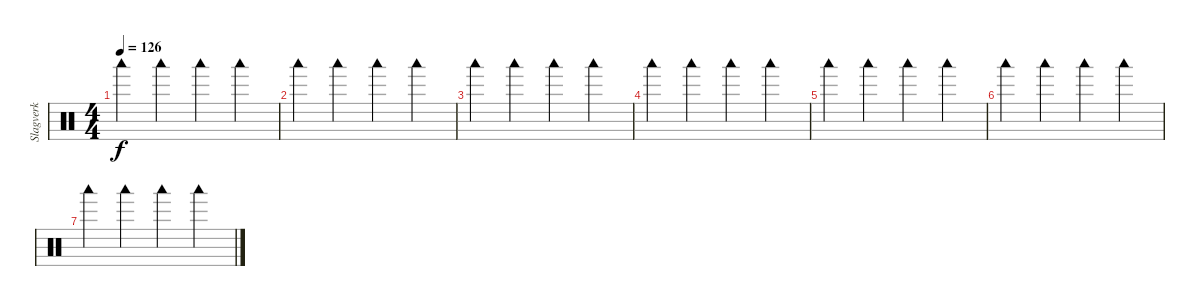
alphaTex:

\track ("Slagverk" "Slagverk") {instrument percussion}
\staff {score}
\articulation defaults
\ts (4 4)
\tempo 126
\clef neutral
\ks c "Woodblock low (hit)".4{dy f} "Woodblock low (hit)".4 "Woodblock low (hit)".4 "Woodblock low (hit)".4
|
"Woodblock low (hit)".4 "Woodblock low (hit)".4 "Woodblock low (hit)".4 "Woodblock low (hit)".4 |
"Woodblock low (hit)".4 "Woodblock low (hit)".4 "Woodblock low (hit)".4 "Woodblock low (hit)".4 |
"Woodblock low (hit)".4 "Woodblock low (hit)".4 "Woodblock low (hit)".4 "Woodblock low (hit)".4 |
"Woodblock low (hit)".4 "Woodblock low (hit)".4 "Woodblock low (hit)".4 "Woodblock low (hit)".4 |
"Woodblock low (hit)".4 "Woodblock low (hit)".4 "Woodblock low (hit)".4 "Woodblock low (hit)".4 |
"Woodblock low (hit)".4 "Woodblock low (hit)".4 "Woodblock low (hit)".4 "Woodblock low (hit)".4
